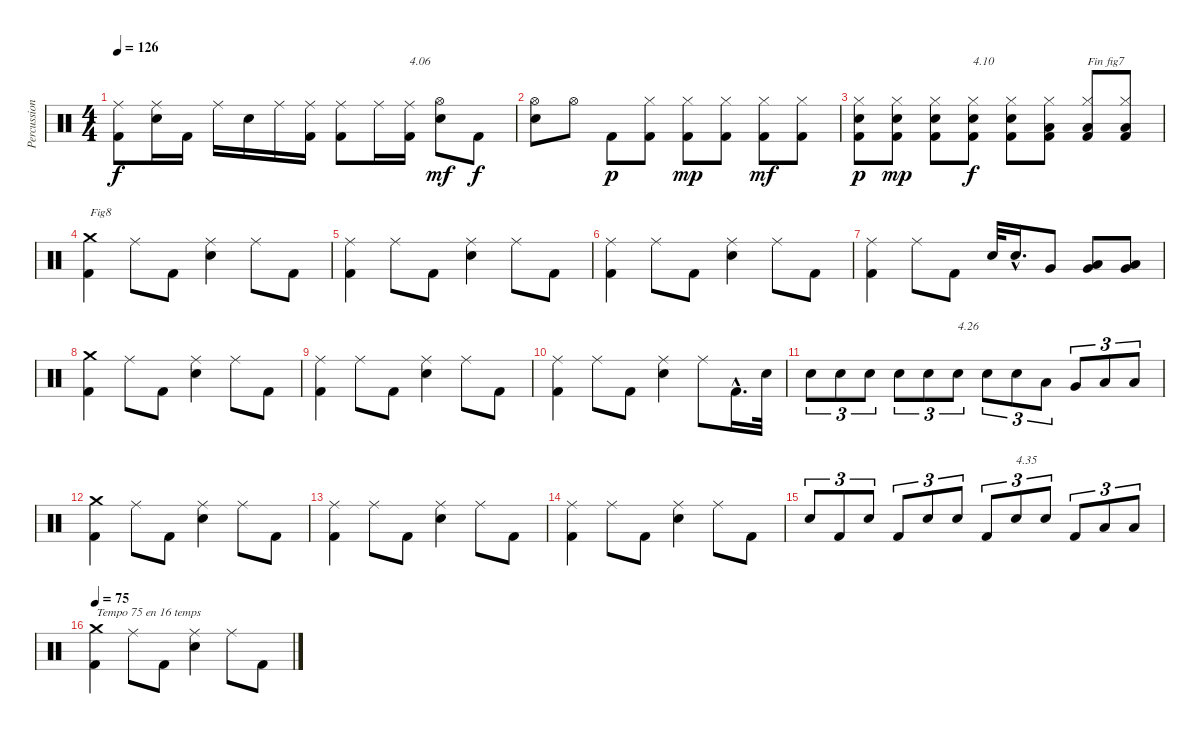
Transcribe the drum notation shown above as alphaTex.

\track ("Percussions" "Percussion") {instrument percussion}
\staff {score}
\articulation defaults
\ts (4 4)
\tempo 126
\clef neutral
\ks c
("Kick (hit) 2" "Ride (middle)").8{dy f} ("Electric Snare (hit)" "Ride (middle)").16 "Kick (hit) 2".16 "Ride (middle)".16 "Electric Snare (hit)".16 "Ride (middle)".16 ("Kick (hit) 2" "Ride (middle)").16 ("Kick (hit) 2" "Ride (middle)").8 "Ride (middle)".16 ("Kick (hit) 2" "Ride (middle)").16{txt "4.06"} ("Electric Snare (hit)" "Hi-Hat (open)").8{dy mf} "Kick (hit) 2".8{dy f} |
("Electric Snare (hit)" "Hi-Hat (open)").8 "Hi-Hat (open)".8 "Kick (hit) 2".8{dy p} ("Kick (hit) 2" "Hi-Hat (closed)").8 ("Kick (hit) 2" "Hi-Hat (closed)").8{dy mp} ("Kick (hit) 2" "Hi-Hat (closed)").8 ("Kick (hit) 2" "Hi-Hat (closed)").8{dy mf} ("Kick (hit) 2" "Hi-Hat (closed)").8 |
("Kick (hit) 2" "Electric Snare (hit)" "Hi-Hat (closed)").8{dy p} ("Kick (hit) 2" "Electric Snare (hit)" "Hi-Hat (closed)").8{dy mp} ("Kick (hit) 2" "Electric Snare (hit)" "Hi-Hat (closed)").8 ("Kick (hit) 2" "Electric Snare (hit)" "Hi-Hat (closed)").8{txt "4.10" dy f} ("Kick (hit) 2" "Electric Snare (hit)" "Hi-Hat (closed)").8 ("Kick (hit) 2" "Low Tom (hit)" "Hi-Hat (closed)").8 ("Kick (hit) 2" "Low Tom (hit)" "Hi-Hat (closed)").8{txt "Fin fig7"} ("Kick (hit) 2" "Low Tom (hit)" "Hi-Hat (closed)").8 |
("Kick (hit) 2" "Crash medium (hit)").4{txt "Fig8"} "Ride (middle)".8 "Kick (hit) 2".8 ("Electric Snare (hit)" "Ride (middle)").4 "Ride (middle)".8 "Kick (hit) 2".8 |
("Kick (hit) 2" "Ride (middle)").4 "Ride (middle)".8 "Kick (hit) 2".8 ("Electric Snare (hit)" "Ride (middle)").4 "Ride (middle)".8 "Kick (hit) 2".8 |
("Kick (hit) 2" "Ride (middle)").4 "Ride (middle)".8 "Kick (hit) 2".8 ("Electric Snare (hit)" "Ride (middle)").4 "Ride (middle)".8 "Kick (hit) 2".8 |
("Kick (hit) 2" "Ride (middle)").4 "Ride (middle)".8 "Kick (hit) 2".8 "Electric Snare (hit)".32 "Electric Snare (hit)"{hac}.16{d} "Very Low Tom (hit)".8 ("Very Low Tom (hit)" "Low Tom (hit)").8 ("Very Low Tom (hit)" "Low Tom (hit)").8 |
("Kick (hit) 2" "Crash medium (hit)").4 "Ride (middle)".8 "Kick (hit) 2".8 ("Electric Snare (hit)" "Ride (middle)").4 "Ride (middle)".8 "Kick (hit) 2".8 |
("Kick (hit) 2" "Ride (middle)").4 "Ride (middle)".8 "Kick (hit) 2".8 ("Electric Snare (hit)" "Ride (middle)").4 "Ride (middle)".8 "Kick (hit) 2".8 |
("Kick (hit) 2" "Ride (middle)").4 "Ride (middle)".8 "Kick (hit) 2".8 ("Electric Snare (hit)" "Ride (middle)").4 "Ride (middle)".8 "Kick (hit) 2"{hac}.16{d} "Electric Snare (hit)".32 |
"Electric Snare (hit)".8{tu (3 2)} "Electric Snare (hit)".8{tu (3 2)} "Electric Snare (hit)".8{tu (3 2)} "Electric Snare (hit)".8{tu (3 2)} "Electric Snare (hit)".8{tu (3 2)} "Electric Snare (hit)".8{tu (3 2) txt "4.26"} "Electric Snare (hit)".8{tu (3 2)} "Electric Snare (hit)".8{tu (3 2)} "Low Tom (hit)".8{tu (3 2)} "Very Low Tom (hit)".8{tu (3 2)} "Low Floor Tom (hit)".8{tu (3 2)} "Low Floor Tom (hit)".8{tu (3 2)} |
("Kick (hit) 2" "Crash medium (hit)").4 "Ride (middle)".8 "Kick (hit) 2".8 ("Electric Snare (hit)" "Ride (middle)").4 "Ride (middle)".8 "Kick (hit) 2".8 |
("Kick (hit) 2" "Ride (middle)").4 "Ride (middle)".8 "Kick (hit) 2".8 ("Electric Snare (hit)" "Ride (middle)").4 "Ride (middle)".8 "Kick (hit) 2".8 |
("Kick (hit) 2" "Ride (middle)").4 "Ride (middle)".8 "Kick (hit) 2".8 ("Electric Snare (hit)" "Ride (middle)").4 "Ride (middle)".8 "Kick (hit) 2".8 |
"Electric Snare (hit)".8{tu (3 2)} "Kick (hit) 2".8{tu (3 2)} "Electric Snare (hit)".8{tu (3 2)} "Kick (hit) 2".8{tu (3 2)} "Electric Snare (hit)".8{tu (3 2)} "Electric Snare (hit)".8{tu (3 2)} "Kick (hit) 2".8{tu (3 2)} "Electric Snare (hit)".8{tu (3 2) txt "4.35"} "Electric Snare (hit)".8{tu (3 2)} "Kick (hit) 2".8{tu (3 2)} "Low Floor Tom (hit)".8{tu (3 2)} "Low Floor Tom (hit)".8{tu (3 2)} |
\tempo 75
("Kick (hit) 2" "Crash medium (hit)").4{txt "Tempo 75 en 16 temps"} "Ride (middle)".8 "Kick (hit) 2".8 ("Electric Snare (hit)" "Ride (middle)").4 "Ride (middle)".8 "Kick (hit) 2".8
